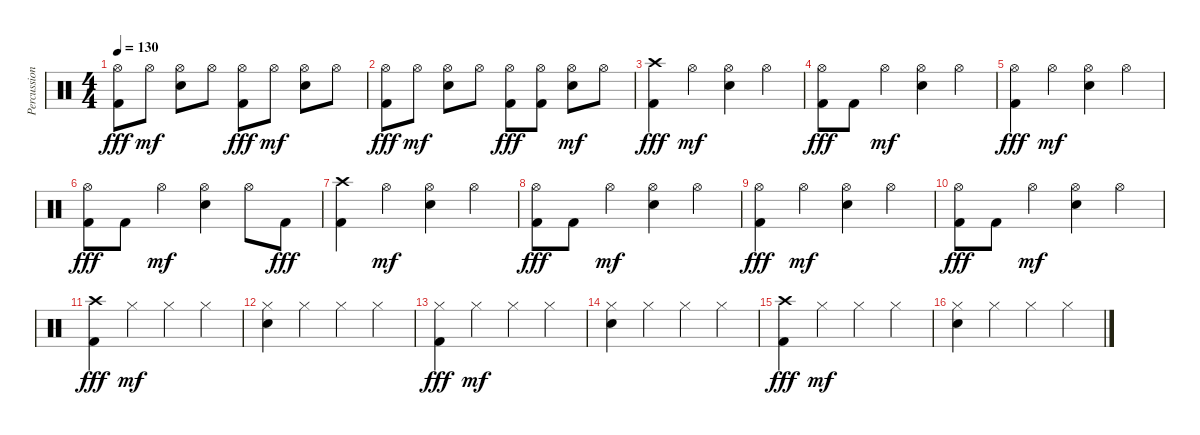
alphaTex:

\track ("Percussion" "Percussion") {instrument percussion}
\staff {score}
\articulation defaults
\ts (4 4)
\tempo 130
\clef neutral
\ks c
("Hi-Hat (open)" "Kick (hit) 2").8{dy fff} "Hi-Hat (open)".8{dy mf} ("Hi-Hat (open)" "Electric Snare (hit)").8 "Hi-Hat (open)".8 ("Hi-Hat (open)" "Kick (hit) 2").8{dy fff} "Hi-Hat (open)".8{dy mf} ("Hi-Hat (open)" "Electric Snare (hit)").8 "Hi-Hat (open)".8 |
("Hi-Hat (open)" "Kick (hit) 2").8{dy fff} "Hi-Hat (open)".8{dy mf} ("Hi-Hat (open)" "Electric Snare (hit)").8 "Hi-Hat (open)".8 ("Hi-Hat (open)" "Kick (hit) 2").8{dy fff} ("Hi-Hat (open)" "Kick (hit) 2").8 ("Hi-Hat (open)" "Electric Snare (hit)").8{dy mf} "Hi-Hat (open)".8 |
("Crash high (hit)" "Kick (hit) 2").4{dy fff} "Hi-Hat (open)".4{dy mf} ("Hi-Hat (open)" "Electric Snare (hit)").4 "Hi-Hat (open)".4 |
("Hi-Hat (open)" "Kick (hit) 2").8{dy fff} "Kick (hit) 2".8 "Hi-Hat (open)".4{dy mf} ("Hi-Hat (open)" "Electric Snare (hit)").4 "Hi-Hat (open)".4 |
("Hi-Hat (open)" "Kick (hit) 2").4{dy fff} "Hi-Hat (open)".4{dy mf} ("Hi-Hat (open)" "Electric Snare (hit)").4 "Hi-Hat (open)".4 |
("Hi-Hat (open)" "Kick (hit) 2").8{dy fff} "Kick (hit) 2".8 "Hi-Hat (open)".4{dy mf} ("Hi-Hat (open)" "Electric Snare (hit)").4 "Hi-Hat (open)".8 "Kick (hit) 2".8{dy fff} |
("Crash high (hit)" "Kick (hit) 2").4 "Hi-Hat (open)".4{dy mf} ("Hi-Hat (open)" "Electric Snare (hit)").4 "Hi-Hat (open)".4 |
("Hi-Hat (open)" "Kick (hit) 2").8{dy fff} "Kick (hit) 2".8 "Hi-Hat (open)".4{dy mf} ("Hi-Hat (open)" "Electric Snare (hit)").4 "Hi-Hat (open)".4 |
("Hi-Hat (open)" "Kick (hit) 2").4{dy fff} "Hi-Hat (open)".4{dy mf} ("Hi-Hat (open)" "Electric Snare (hit)").4 "Hi-Hat (open)".4 |
("Hi-Hat (open)" "Kick (hit) 2").8{dy fff} "Kick (hit) 2".8 "Hi-Hat (open)".4{dy mf} ("Hi-Hat (open)" "Electric Snare (hit)").4 "Hi-Hat (open)".4 |
("Crash high (hit)" "Kick (hit) 2").4{dy fff} "Hi-Hat (closed)".4{dy mf} "Hi-Hat (closed)".4 "Hi-Hat (closed)".4 |
("Hi-Hat (closed)" "Electric Snare (hit)").4 "Hi-Hat (closed)".4 "Hi-Hat (closed)".4 "Hi-Hat (closed)".4 |
("Hi-Hat (closed)" "Kick (hit) 2").4{dy fff} "Hi-Hat (closed)".4{dy mf} "Hi-Hat (closed)".4 "Hi-Hat (closed)".4 |
("Hi-Hat (closed)" "Electric Snare (hit)").4 "Hi-Hat (closed)".4 "Hi-Hat (closed)".4 "Hi-Hat (closed)".4 |
("Crash high (hit)" "Kick (hit) 2").4{dy fff} "Hi-Hat (closed)".4{dy mf} "Hi-Hat (closed)".4 "Hi-Hat (closed)".4 |
("Hi-Hat (closed)" "Electric Snare (hit)").4 "Hi-Hat (closed)".4 "Hi-Hat (closed)".4 "Hi-Hat (closed)".4
